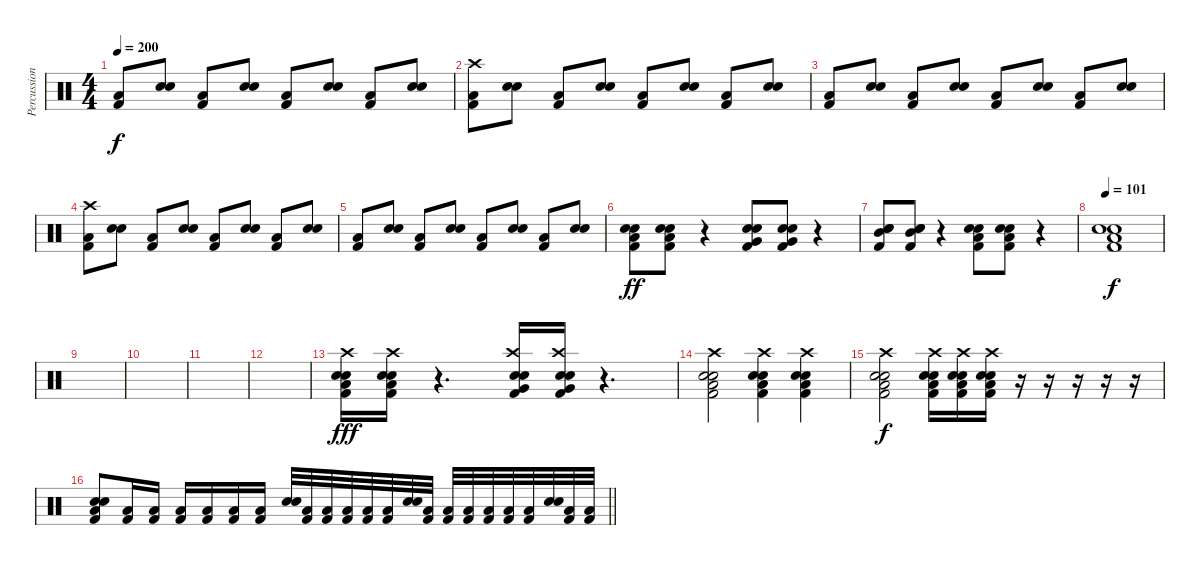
\track ("Percussion, dave" "Percussion") {instrument percussion}
\staff {score}
\articulation defaults
\ts (4 4)
\tempo 200
\clef neutral
\ks c
("Low Tom (hit)" "Kick (hit) 2").8{dy f} ("Snare (hit) 2" "Electric Snare (hit)").8 ("Low Tom (hit)" "Kick (hit) 2").8 ("Snare (hit) 2" "Electric Snare (hit)").8 ("Low Tom (hit)" "Kick (hit) 2").8 ("Snare (hit) 2" "Electric Snare (hit)").8 ("Low Tom (hit)" "Kick (hit) 2").8 ("Snare (hit) 2" "Electric Snare (hit)").8 |
("Crash high (hit)" "Low Tom (hit)" "Kick (hit) 2").8 ("Snare (hit) 2" "Electric Snare (hit)").8 ("Low Tom (hit)" "Kick (hit) 2").8 ("Snare (hit) 2" "Electric Snare (hit)").8 ("Low Tom (hit)" "Kick (hit) 2").8 ("Snare (hit) 2" "Electric Snare (hit)").8 ("Low Tom (hit)" "Kick (hit) 2").8 ("Snare (hit) 2" "Electric Snare (hit)").8 |
("Low Tom (hit)" "Kick (hit) 2").8 ("Snare (hit) 2" "Electric Snare (hit)").8 ("Low Tom (hit)" "Kick (hit) 2").8 ("Snare (hit) 2" "Electric Snare (hit)").8 ("Low Tom (hit)" "Kick (hit) 2").8 ("Snare (hit) 2" "Electric Snare (hit)").8 ("Low Tom (hit)" "Kick (hit) 2").8 ("Snare (hit) 2" "Electric Snare (hit)").8 |
("Crash high (hit)" "Low Tom (hit)" "Kick (hit) 2").8 ("Snare (hit) 2" "Electric Snare (hit)").8 ("Low Tom (hit)" "Kick (hit) 2").8 ("Snare (hit) 2" "Electric Snare (hit)").8 ("Low Tom (hit)" "Kick (hit) 2").8 ("Snare (hit) 2" "Electric Snare (hit)").8 ("Low Tom (hit)" "Kick (hit) 2").8 ("Snare (hit) 2" "Electric Snare (hit)").8 |
("Low Tom (hit)" "Kick (hit) 2").8 ("Snare (hit) 2" "Electric Snare (hit)").8 ("Low Tom (hit)" "Kick (hit) 2").8 ("Snare (hit) 2" "Electric Snare (hit)").8 ("Low Tom (hit)" "Kick (hit) 2").8 ("Snare (hit) 2" "Electric Snare (hit)").8 ("Low Tom (hit)" "Kick (hit) 2").8 ("Snare (hit) 2" "Electric Snare (hit)").8 |
("Snare (hit) 2" "Electric Snare (hit)" "Kick (hit) 2" "Low Tom (hit)").8{dy ff} ("Snare (hit) 2" "Electric Snare (hit)" "Kick (hit) 2" "Low Tom (hit)").8 r.4 ("Snare (hit) 2" "Electric Snare (hit)" "Kick (hit) 2" "Very Low Tom (hit)").8 ("Snare (hit) 2" "Electric Snare (hit)" "Kick (hit) 2" "Very Low Tom (hit)").8 r.4 |
("Snare (hit) 2" "Electric Snare (hit)" "Kick (hit) 2" "Mid Tom (hit)").8 ("Snare (hit) 2" "Electric Snare (hit)" "Kick (hit) 2" "Mid Tom (hit)").8 r.4 ("Snare (hit) 2" "Electric Snare (hit)" "Kick (hit) 2" "Low Tom (hit)").8 ("Snare (hit) 2" "Electric Snare (hit)" "Kick (hit) 2" "Low Tom (hit)").8 r.4 |
\tempo 101
("Snare (hit) 2" "Electric Snare (hit)" "Kick (hit) 2" "Low Tom (hit)").1{dy f} |
|
|
|
|
("Crash high (hit)" "Snare (hit) 2" "Electric Snare (hit)" "Low Tom (hit)" "Kick (hit) 2").16{dy fff} ("Crash high (hit)" "Snare (hit) 2" "Electric Snare (hit)" "Low Tom (hit)" "Kick (hit) 2").16 r.4{d} ("Crash high (hit)" "Snare (hit) 2" "Electric Snare (hit)" "Very Low Tom (hit)" "Kick (hit) 2").16 ("Crash high (hit)" "Snare (hit) 2" "Electric Snare (hit)" "Very Low Tom (hit)" "Kick (hit) 2").16 r.4{d} |
("Crash high (hit)" "Snare (hit) 2" "Electric Snare (hit)" "Low Tom (hit)" "Kick (hit) 2").2 ("Crash high (hit)" "Snare (hit) 2" "Electric Snare (hit)" "Low Tom (hit)" "Kick (hit) 2").4 ("Crash high (hit)" "Snare (hit) 2" "Electric Snare (hit)" "Low Tom (hit)" "Kick (hit) 2").4 |
("Crash high (hit)" "Snare (hit) 2" "Electric Snare (hit)" "Low Tom (hit)" "Kick (hit) 2").2{dy f} ("Crash high (hit)" "Snare (hit) 2" "Electric Snare (hit)" "Low Tom (hit)" "Kick (hit) 2").16 ("Crash high (hit)" "Snare (hit) 2" "Electric Snare (hit)" "Low Tom (hit)" "Kick (hit) 2").16 ("Crash high (hit)" "Snare (hit) 2" "Electric Snare (hit)" "Low Tom (hit)" "Kick (hit) 2").16 r.16 r.16 r.16 r.16 r.16 |
\barLineRight lightlight
("Snare (hit) 2" "Electric Snare (hit)" "Low Tom (hit)" "Kick (hit) 2").8 ("Low Tom (hit)" "Kick (hit) 2").16 ("Low Tom (hit)" "Kick (hit) 2").16 ("Low Tom (hit)" "Kick (hit) 2").16 ("Low Tom (hit)" "Kick (hit) 2").16 ("Low Tom (hit)" "Kick (hit) 2").16 ("Low Tom (hit)" "Kick (hit) 2").16 ("Electric Snare (hit)" "Snare (hit) 2").32 ("Low Tom (hit)" "Kick (hit) 2").32 ("Low Tom (hit)" "Kick (hit) 2").32 ("Low Tom (hit)" "Kick (hit) 2").32 ("Low Tom (hit)" "Kick (hit) 2").32 ("Low Tom (hit)" "Kick (hit) 2").32 ("Electric Snare (hit)" "Snare (hit) 2").32 ("Low Tom (hit)" "Kick (hit) 2").32 ("Low Tom (hit)" "Kick (hit) 2").32 ("Low Tom (hit)" "Kick (hit) 2").32 ("Low Tom (hit)" "Kick (hit) 2").32 ("Low Tom (hit)" "Kick (hit) 2").32 ("Low Tom (hit)" "Kick (hit) 2").32 ("Electric Snare (hit)" "Snare (hit) 2").32 ("Low Tom (hit)" "Kick (hit) 2").32 ("Low Tom (hit)" "Kick (hit) 2").32
